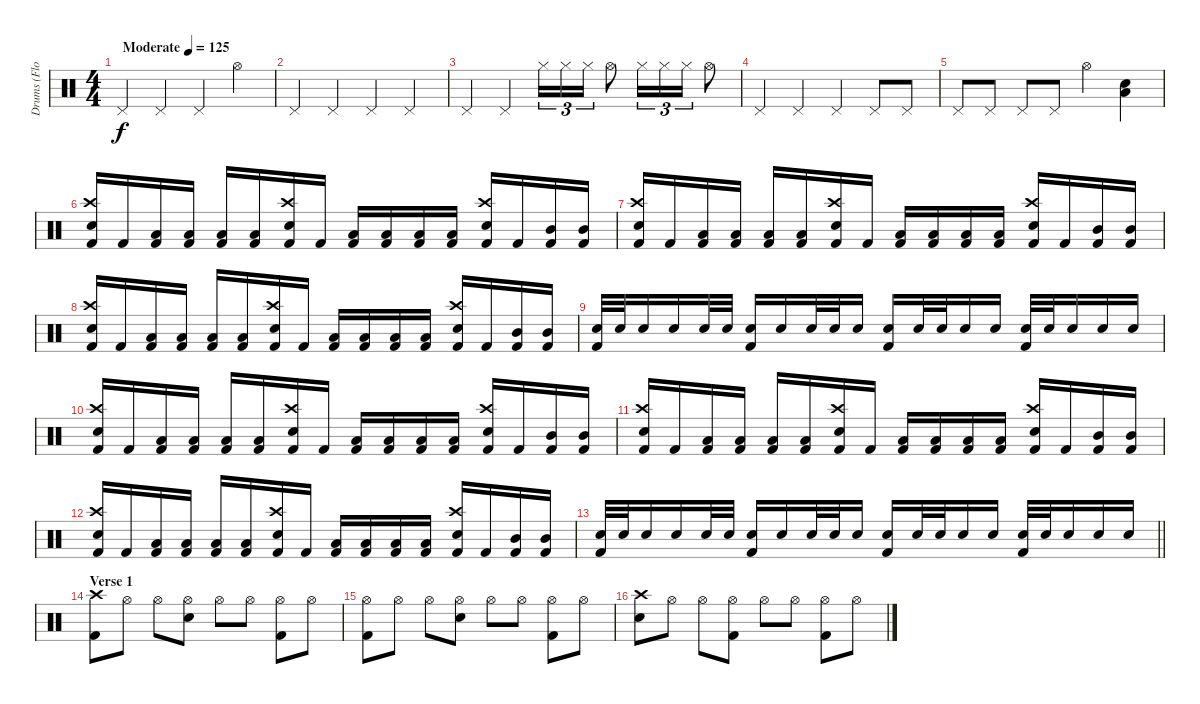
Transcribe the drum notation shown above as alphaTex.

\track ("Drums (Floboter)" "Drums (Flo") {instrument percussion}
\staff {score}
\articulation defaults
\ts (4 4)
\tempo (125 "Moderate")
\clef neutral
\ks c "Pedal Hi-Hat (hit)".4{dy f} "Pedal Hi-Hat (hit)".4 "Pedal Hi-Hat (hit)".4 "Hi-Hat (open)".4
|
"Pedal Hi-Hat (hit)".4 "Pedal Hi-Hat (hit)".4 "Pedal Hi-Hat (hit)".4 "Pedal Hi-Hat (hit)".4 |
"Pedal Hi-Hat (hit)".4 "Pedal Hi-Hat (hit)".4 "Hi-Hat (closed)".16{tu (3 2)} "Hi-Hat (closed)".16{tu (3 2)} "Hi-Hat (closed)".16{tu (3 2)} "Hi-Hat (open)".8 "Hi-Hat (closed)".16{tu (3 2)} "Hi-Hat (closed)".16{tu (3 2)} "Hi-Hat (closed)".16{tu (3 2)} "Hi-Hat (open)".8 |
"Pedal Hi-Hat (hit)".4 "Pedal Hi-Hat (hit)".4 "Pedal Hi-Hat (hit)".4 "Pedal Hi-Hat (hit)".8 "Pedal Hi-Hat (hit)".8 |
"Pedal Hi-Hat (hit)".8 "Pedal Hi-Hat (hit)".8 "Pedal Hi-Hat (hit)".8 "Pedal Hi-Hat (hit)".8 "Hi-Hat (open)".4 ("Low Floor Tom (hit)" "Snare (hit) 2").4 |
("Crash high (hit)" "Snare (hit) 2" "Kick (hit) 2").16 "Kick (hit) 2".16 ("Low Tom (hit)" "Kick (hit) 2").16 ("Low Tom (hit)" "Kick (hit) 2").16 ("Low Floor Tom (hit)" "Kick (hit) 2").16 ("Low Floor Tom (hit)" "Kick (hit) 2").16 ("Crash high (hit)" "Snare (hit) 2" "Kick (hit) 2").16 "Kick (hit) 2".16 ("Low Tom (hit)" "Kick (hit) 2").16 ("Low Tom (hit)" "Kick (hit) 2").16 ("Low Floor Tom (hit)" "Kick (hit) 2").16 ("Low Floor Tom (hit)" "Kick (hit) 2").16 ("Crash high (hit)" "Snare (hit) 2" "Kick (hit) 2").16 "Kick (hit) 2".16 ("Mid Tom (hit)" "Kick (hit) 2").16 ("Mid Tom (hit)" "Kick (hit) 2").16 |
("Crash high (hit)" "Snare (hit) 2" "Kick (hit) 2").16 "Kick (hit) 2".16 ("Low Tom (hit)" "Kick (hit) 2").16 ("Low Tom (hit)" "Kick (hit) 2").16 ("Low Floor Tom (hit)" "Kick (hit) 2").16 ("Low Floor Tom (hit)" "Kick (hit) 2").16 ("Crash high (hit)" "Snare (hit) 2" "Kick (hit) 2").16 "Kick (hit) 2".16 ("Low Tom (hit)" "Kick (hit) 2").16 ("Low Tom (hit)" "Kick (hit) 2").16 ("Low Floor Tom (hit)" "Kick (hit) 2").16 ("Low Floor Tom (hit)" "Kick (hit) 2").16 ("Crash high (hit)" "Snare (hit) 2" "Kick (hit) 2").16 "Kick (hit) 2".16 ("Mid Tom (hit)" "Kick (hit) 2").16 ("Mid Tom (hit)" "Kick (hit) 2").16 |
("Crash high (hit)" "Snare (hit) 2" "Kick (hit) 2").16 "Kick (hit) 2".16 ("Low Tom (hit)" "Kick (hit) 2").16 ("Low Tom (hit)" "Kick (hit) 2").16 ("Low Floor Tom (hit)" "Kick (hit) 2").16 ("Low Floor Tom (hit)" "Kick (hit) 2").16 ("Crash high (hit)" "Snare (hit) 2" "Kick (hit) 2").16 "Kick (hit) 2".16 ("Low Tom (hit)" "Kick (hit) 2").16 ("Low Tom (hit)" "Kick (hit) 2").16 ("Low Floor Tom (hit)" "Kick (hit) 2").16 ("Low Floor Tom (hit)" "Kick (hit) 2").16 ("Crash high (hit)" "Snare (hit) 2" "Kick (hit) 2").16 "Kick (hit) 2".16 ("Mid Tom (hit)" "Kick (hit) 2").16 ("Mid Tom (hit)" "Kick (hit) 2").16 |
("Snare (hit) 2" "Kick (hit) 2").32 "Snare (hit) 2".32 "Snare (hit) 2".16 "Snare (hit) 2".16 "Snare (hit) 2".32 "Snare (hit) 2".32 ("Snare (hit) 2" "Kick (hit) 2").16 "Snare (hit) 2".16 "Snare (hit) 2".32 "Snare (hit) 2".32 "Snare (hit) 2".16 ("Snare (hit) 2" "Kick (hit) 2").16 "Snare (hit) 2".32 "Snare (hit) 2".32 "Snare (hit) 2".16 "Snare (hit) 2".16 ("Snare (hit) 2" "Kick (hit) 2").32 "Snare (hit) 2".32 "Snare (hit) 2".16 "Snare (hit) 2".16 "Snare (hit) 2".16 |
("Crash high (hit)" "Snare (hit) 2" "Kick (hit) 2").16 "Kick (hit) 2".16 ("Low Tom (hit)" "Kick (hit) 2").16 ("Low Tom (hit)" "Kick (hit) 2").16 ("Low Floor Tom (hit)" "Kick (hit) 2").16 ("Low Floor Tom (hit)" "Kick (hit) 2").16 ("Crash high (hit)" "Snare (hit) 2" "Kick (hit) 2").16 "Kick (hit) 2".16 ("Low Tom (hit)" "Kick (hit) 2").16 ("Low Tom (hit)" "Kick (hit) 2").16 ("Low Floor Tom (hit)" "Kick (hit) 2").16 ("Low Floor Tom (hit)" "Kick (hit) 2").16 ("Crash high (hit)" "Snare (hit) 2" "Kick (hit) 2").16 "Kick (hit) 2".16 ("Mid Tom (hit)" "Kick (hit) 2").16 ("Mid Tom (hit)" "Kick (hit) 2").16 |
("Crash high (hit)" "Snare (hit) 2" "Kick (hit) 2").16 "Kick (hit) 2".16 ("Low Tom (hit)" "Kick (hit) 2").16 ("Low Tom (hit)" "Kick (hit) 2").16 ("Low Floor Tom (hit)" "Kick (hit) 2").16 ("Low Floor Tom (hit)" "Kick (hit) 2").16 ("Crash high (hit)" "Snare (hit) 2" "Kick (hit) 2").16 "Kick (hit) 2".16 ("Low Tom (hit)" "Kick (hit) 2").16 ("Low Tom (hit)" "Kick (hit) 2").16 ("Low Floor Tom (hit)" "Kick (hit) 2").16 ("Low Floor Tom (hit)" "Kick (hit) 2").16 ("Crash high (hit)" "Snare (hit) 2" "Kick (hit) 2").16 "Kick (hit) 2".16 ("Mid Tom (hit)" "Kick (hit) 2").16 ("Mid Tom (hit)" "Kick (hit) 2").16 |
("Crash high (hit)" "Snare (hit) 2" "Kick (hit) 2").16 "Kick (hit) 2".16 ("Low Tom (hit)" "Kick (hit) 2").16 ("Low Tom (hit)" "Kick (hit) 2").16 ("Low Floor Tom (hit)" "Kick (hit) 2").16 ("Low Floor Tom (hit)" "Kick (hit) 2").16 ("Crash high (hit)" "Snare (hit) 2" "Kick (hit) 2").16 "Kick (hit) 2".16 ("Low Tom (hit)" "Kick (hit) 2").16 ("Low Tom (hit)" "Kick (hit) 2").16 ("Low Floor Tom (hit)" "Kick (hit) 2").16 ("Low Floor Tom (hit)" "Kick (hit) 2").16 ("Crash high (hit)" "Snare (hit) 2" "Kick (hit) 2").16 "Kick (hit) 2".16 ("Mid Tom (hit)" "Kick (hit) 2").16 ("Mid Tom (hit)" "Kick (hit) 2").16 |
\barLineRight lightlight
("Snare (hit) 2" "Kick (hit) 2").32 "Snare (hit) 2".32 "Snare (hit) 2".16 "Snare (hit) 2".16 "Snare (hit) 2".32 "Snare (hit) 2".32 ("Snare (hit) 2" "Kick (hit) 2").16 "Snare (hit) 2".16 "Snare (hit) 2".32 "Snare (hit) 2".32 "Snare (hit) 2".16 ("Snare (hit) 2" "Kick (hit) 2").16 "Snare (hit) 2".32 "Snare (hit) 2".32 "Snare (hit) 2".16 "Snare (hit) 2".16 ("Snare (hit) 2" "Kick (hit) 2").32 "Snare (hit) 2".32 "Snare (hit) 2".16 "Snare (hit) 2".16 "Snare (hit) 2".16 |
\section ("" "Verse 1")
("Crash high (hit)" "Kick (hit) 2").8 "Hi-Hat (open)".8 "Hi-Hat (open)".8 ("Hi-Hat (open)" "Snare (hit) 2").8 "Hi-Hat (open)".8 "Hi-Hat (open)".8 ("Hi-Hat (open)" "Kick (hit) 2").8 "Hi-Hat (open)".8 |
("Hi-Hat (open)" "Kick (hit) 2").8 "Hi-Hat (open)".8 "Hi-Hat (open)".8 ("Hi-Hat (open)" "Snare (hit) 2").8 "Hi-Hat (open)".8 "Hi-Hat (open)".8 ("Hi-Hat (open)" "Kick (hit) 2").8 "Hi-Hat (open)".8 |
("Crash high (hit)" "Snare (hit) 2").8 "Hi-Hat (open)".8 "Hi-Hat (open)".8 ("Hi-Hat (open)" "Kick (hit) 2").8 "Hi-Hat (open)".8 "Hi-Hat (open)".8 ("Hi-Hat (open)" "Kick (hit) 2").8 "Hi-Hat (open)".8
